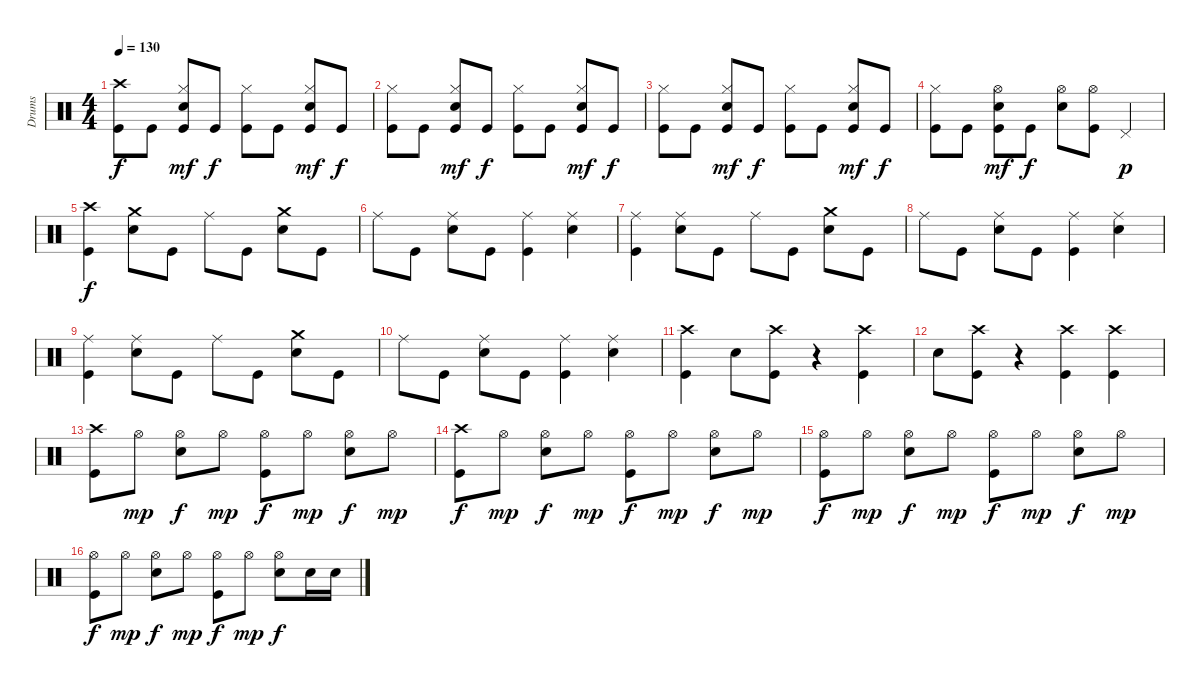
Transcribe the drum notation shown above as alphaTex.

\track ("Drums" "Drums") {instrument percussion}
\staff {score}
\articulation defaults
\ts (4 4)
\tempo 130
\clef neutral
\ks c
("Crash high (hit)" "Kick (hit)").8{dy f} "Kick (hit)".8 ("Hi-Hat (closed)" "Snare (hit) 2" "Kick (hit)").8{dy mf} "Kick (hit)".8{dy f} ("Hi-Hat (closed)" "Kick (hit)").8 "Kick (hit)".8 ("Hi-Hat (closed)" "Snare (hit) 2" "Kick (hit)").8{dy mf} "Kick (hit)".8{dy f} |
("Hi-Hat (closed)" "Kick (hit)").8 "Kick (hit)".8 ("Hi-Hat (closed)" "Snare (hit) 2" "Kick (hit)").8{dy mf} "Kick (hit)".8{dy f} ("Hi-Hat (closed)" "Kick (hit)").8 "Kick (hit)".8 ("Hi-Hat (closed)" "Snare (hit) 2" "Kick (hit)").8{dy mf} "Kick (hit)".8{dy f} |
("Hi-Hat (closed)" "Kick (hit)").8 "Kick (hit)".8 ("Hi-Hat (closed)" "Snare (hit) 2" "Kick (hit)").8{dy mf} "Kick (hit)".8{dy f} ("Hi-Hat (closed)" "Kick (hit)").8 "Kick (hit)".8 ("Hi-Hat (closed)" "Snare (hit) 2" "Kick (hit)").8{dy mf} "Kick (hit)".8{dy f} |
("Hi-Hat (closed)" "Kick (hit)").8 "Kick (hit)".8 ("Hi-Hat (open)" "Snare (hit) 2" "Kick (hit)").8{dy mf} "Kick (hit)".8{dy f} ("Hi-Hat (open)" "Snare (hit) 2").8 ("Hi-Hat (open)" "Kick (hit)").8 "Pedal Hi-Hat (hit)".4{dy p} |
("Crash high (hit)" "Kick (hit)").4{dy f} ("Crash medium (hit)" "Snare (hit) 2").8 "Kick (hit)".8 "Ride (middle)".8 "Kick (hit)".8 ("Crash medium (hit)" "Snare (hit) 2").8 "Kick (hit)".8 |
"Ride (middle)".8 "Kick (hit)".8 ("Ride (middle)" "Snare (hit) 2").8 "Kick (hit)".8 ("Ride (middle)" "Kick (hit)").4 ("Ride (middle)" "Snare (hit) 2").4 |
("Ride (middle)" "Kick (hit)").4 ("Ride (middle)" "Snare (hit) 2").8 "Kick (hit)".8 "Ride (middle)".8 "Kick (hit)".8 ("Crash medium (hit)" "Snare (hit) 2").8 "Kick (hit)".8 |
"Ride (middle)".8 "Kick (hit)".8 ("Ride (middle)" "Snare (hit) 2").8 "Kick (hit)".8 ("Ride (middle)" "Kick (hit)").4 ("Ride (middle)" "Snare (hit) 2").4 |
("Ride (middle)" "Kick (hit)").4 ("Ride (middle)" "Snare (hit) 2").8 "Kick (hit)".8 "Ride (middle)".8 "Kick (hit)".8 ("Crash medium (hit)" "Snare (hit) 2").8 "Kick (hit)".8 |
"Ride (middle)".8 "Kick (hit)".8 ("Ride (middle)" "Snare (hit) 2").8 "Kick (hit)".8 ("Ride (middle)" "Kick (hit)").4 ("Ride (middle)" "Snare (hit) 2").4 |
("Crash high (hit)" "Kick (hit)").4 "Snare (hit) 2".8 ("Crash high (hit)" "Kick (hit)").8 r.4 ("Crash high (hit)" "Kick (hit)").4 |
"Snare (hit) 2".8 ("Crash high (hit)" "Kick (hit)").8 r.4 ("Crash high (hit)" "Kick (hit)").4 ("Crash high (hit)" "Kick (hit)").4 |
("Crash high (hit)" "Kick (hit)").8 "Hi-Hat (open)".8{dy mp} ("Hi-Hat (open)" "Snare (hit) 2").8{dy f} "Hi-Hat (open)".8{dy mp} ("Hi-Hat (open)" "Kick (hit)").8{dy f} "Hi-Hat (open)".8{dy mp} ("Hi-Hat (open)" "Snare (hit) 2").8{dy f} "Hi-Hat (open)".8{dy mp} |
("Crash high (hit)" "Kick (hit)").8{dy f} "Hi-Hat (open)".8{dy mp} ("Hi-Hat (open)" "Snare (hit) 2").8{dy f} "Hi-Hat (open)".8{dy mp} ("Hi-Hat (open)" "Kick (hit)").8{dy f} "Hi-Hat (open)".8{dy mp} ("Hi-Hat (open)" "Snare (hit) 2").8{dy f} "Hi-Hat (open)".8{dy mp} |
("Hi-Hat (open)" "Kick (hit)").8{dy f} "Hi-Hat (open)".8{dy mp} ("Hi-Hat (open)" "Snare (hit) 2").8{dy f} "Hi-Hat (open)".8{dy mp} ("Hi-Hat (open)" "Kick (hit)").8{dy f} "Hi-Hat (open)".8{dy mp} ("Hi-Hat (open)" "Snare (hit) 2").8{dy f} "Hi-Hat (open)".8{dy mp} |
("Hi-Hat (open)" "Kick (hit)").8{dy f} "Hi-Hat (open)".8{dy mp} ("Hi-Hat (open)" "Snare (hit) 2").8{dy f} "Hi-Hat (open)".8{dy mp} ("Hi-Hat (open)" "Kick (hit)").8{dy f} "Hi-Hat (open)".8{dy mp} ("Hi-Hat (open)" "Snare (hit) 2").8{dy f} "Snare (hit) 2".16 "Snare (hit) 2".16
